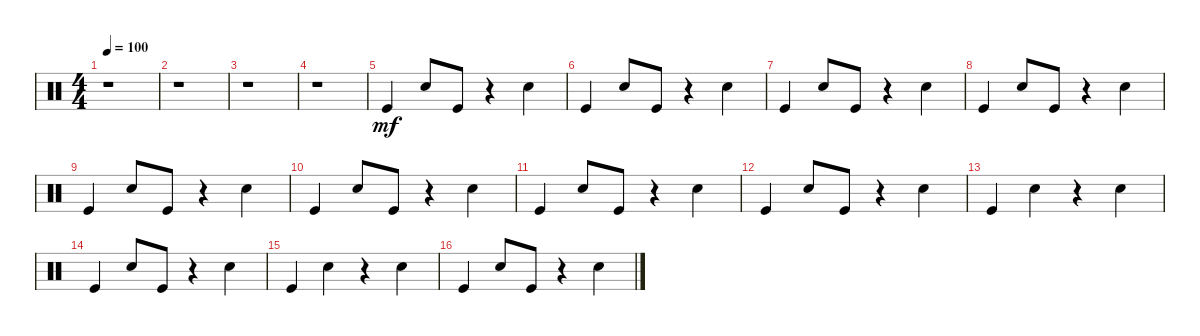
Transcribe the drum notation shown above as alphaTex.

\track "" {instrument percussion}
\staff {score}
\articulation defaults
\ts (4 4)
\tempo 100
\clef neutral
\ks c
r.1{dy mf} |
r.1 |
r.1 |
r.1 |
"Kick (hit)".4 "Snare (hit) 2".8 "Kick (hit)".8 r.4 "Snare (hit) 2".4 |
"Kick (hit)".4 "Snare (hit) 2".8 "Kick (hit)".8 r.4 "Snare (hit) 2".4 |
"Kick (hit)".4 "Snare (hit) 2".8 "Kick (hit)".8 r.4 "Snare (hit) 2".4 |
"Kick (hit)".4 "Snare (hit) 2".8 "Kick (hit)".8 r.4 "Snare (hit) 2".4 |
"Kick (hit)".4 "Snare (hit) 2".8 "Kick (hit)".8 r.4 "Snare (hit) 2".4 |
"Kick (hit)".4 "Snare (hit) 2".8 "Kick (hit)".8 r.4 "Snare (hit) 2".4 |
"Kick (hit)".4 "Snare (hit) 2".8 "Kick (hit)".8 r.4 "Snare (hit) 2".4 |
"Kick (hit)".4 "Snare (hit) 2".8 "Kick (hit)".8 r.4 "Snare (hit) 2".4 |
"Kick (hit)".4 "Snare (hit) 2".4 r.4 "Snare (hit) 2".4 |
"Kick (hit)".4 "Snare (hit) 2".8 "Kick (hit)".8 r.4 "Snare (hit) 2".4 |
"Kick (hit)".4 "Snare (hit) 2".4 r.4 "Snare (hit) 2".4 |
"Kick (hit)".4 "Snare (hit) 2".8 "Kick (hit)".8 r.4 "Snare (hit) 2".4
